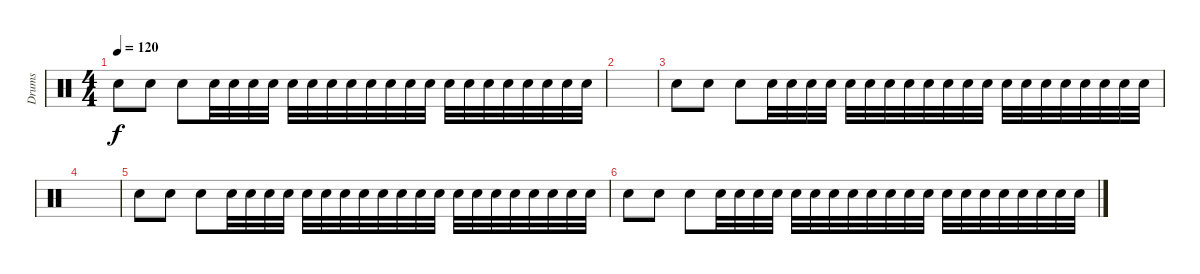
\track ("Drums" "Drums") {instrument percussion}
\staff {score}
\articulation defaults
\ts (4 4)
\tempo 120
\clef neutral
\ks c "Electric Snare (hit)".8{dy f} "Electric Snare (hit)".8 "Electric Snare (hit)".8 "Electric Snare (hit)".32 "Electric Snare (hit)".32 "Electric Snare (hit)".32 "Electric Snare (hit)".32 "Electric Snare (hit)".32 "Electric Snare (hit)".32 "Electric Snare (hit)".32 "Electric Snare (hit)".32 "Electric Snare (hit)".32 "Electric Snare (hit)".32 "Electric Snare (hit)".32 "Electric Snare (hit)".32 "Electric Snare (hit)".32 "Electric Snare (hit)".32 "Electric Snare (hit)".32 "Electric Snare (hit)".32 "Electric Snare (hit)".32 "Electric Snare (hit)".32 "Electric Snare (hit)".32 "Electric Snare (hit)".32
|
|
"Electric Snare (hit)".8 "Electric Snare (hit)".8 "Electric Snare (hit)".8 "Electric Snare (hit)".32 "Electric Snare (hit)".32 "Electric Snare (hit)".32 "Electric Snare (hit)".32 "Electric Snare (hit)".32 "Electric Snare (hit)".32 "Electric Snare (hit)".32 "Electric Snare (hit)".32 "Electric Snare (hit)".32 "Electric Snare (hit)".32 "Electric Snare (hit)".32 "Electric Snare (hit)".32 "Electric Snare (hit)".32 "Electric Snare (hit)".32 "Electric Snare (hit)".32 "Electric Snare (hit)".32 "Electric Snare (hit)".32 "Electric Snare (hit)".32 "Electric Snare (hit)".32 "Electric Snare (hit)".32 |
|
"Electric Snare (hit)".8 "Electric Snare (hit)".8 "Electric Snare (hit)".8 "Electric Snare (hit)".32 "Electric Snare (hit)".32 "Electric Snare (hit)".32 "Electric Snare (hit)".32 "Electric Snare (hit)".32 "Electric Snare (hit)".32 "Electric Snare (hit)".32 "Electric Snare (hit)".32 "Electric Snare (hit)".32 "Electric Snare (hit)".32 "Electric Snare (hit)".32 "Electric Snare (hit)".32 "Electric Snare (hit)".32 "Electric Snare (hit)".32 "Electric Snare (hit)".32 "Electric Snare (hit)".32 "Electric Snare (hit)".32 "Electric Snare (hit)".32 "Electric Snare (hit)".32 "Electric Snare (hit)".32 |
"Electric Snare (hit)".8 "Electric Snare (hit)".8 "Electric Snare (hit)".8 "Electric Snare (hit)".32 "Electric Snare (hit)".32 "Electric Snare (hit)".32 "Electric Snare (hit)".32 "Electric Snare (hit)".32 "Electric Snare (hit)".32 "Electric Snare (hit)".32 "Electric Snare (hit)".32 "Electric Snare (hit)".32 "Electric Snare (hit)".32 "Electric Snare (hit)".32 "Electric Snare (hit)".32 "Electric Snare (hit)".32 "Electric Snare (hit)".32 "Electric Snare (hit)".32 "Electric Snare (hit)".32 "Electric Snare (hit)".32 "Electric Snare (hit)".32 "Electric Snare (hit)".32 "Electric Snare (hit)".32
